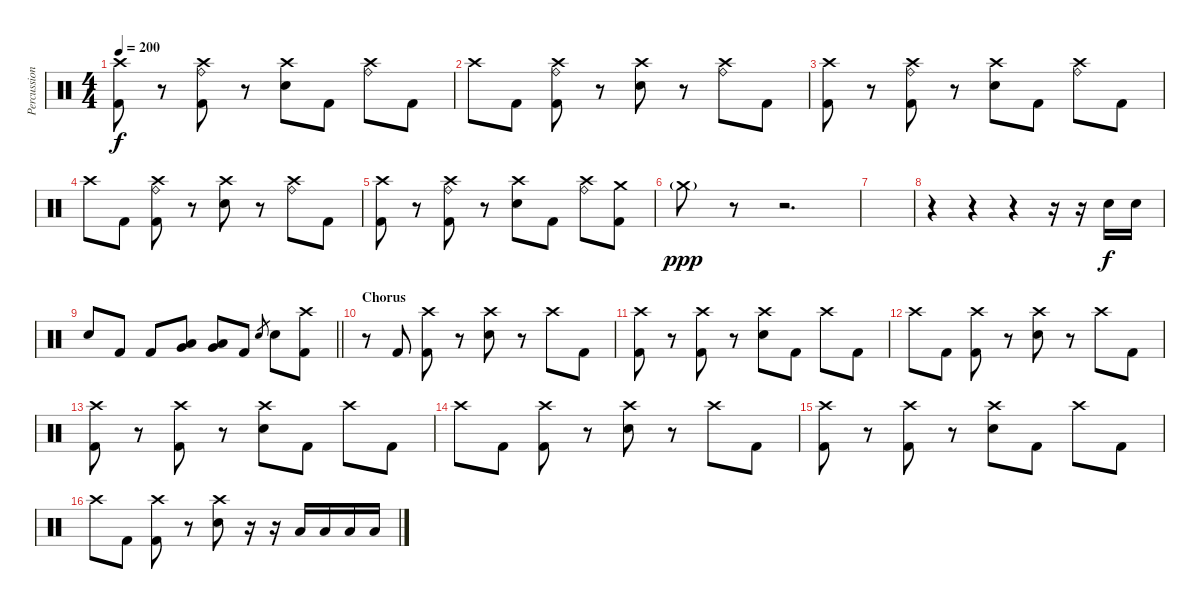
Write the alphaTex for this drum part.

\track ("Percussion" "Percussion") {instrument percussion}
\staff {score}
\articulation defaults
\ts (4 4)
\tempo 200
\clef neutral
\ks c
("Crash high (hit)" "Kick (hit) 2").8{dy f} r.8 ("Crash high (hit)" "Ride (bell)" "Kick (hit) 2").8 r.8 ("Crash high (hit)" "Electric Snare (hit)").8 "Kick (hit) 2".8 ("Crash high (hit)" "Ride (bell)").8 "Kick (hit) 2".8 |
"Crash high (hit)".8 "Kick (hit) 2".8 ("Crash high (hit)" "Ride (bell)" "Kick (hit) 2").8 r.8 ("Crash high (hit)" "Electric Snare (hit)").8 r.8 ("Crash high (hit)" "Ride (bell)").8 "Kick (hit) 2".8 |
("Crash high (hit)" "Kick (hit) 2").8 r.8 ("Crash high (hit)" "Ride (bell)" "Kick (hit) 2").8 r.8 ("Crash high (hit)" "Electric Snare (hit)").8 "Kick (hit) 2".8 ("Crash high (hit)" "Ride (bell)").8 "Kick (hit) 2".8 |
"Crash high (hit)".8 "Kick (hit) 2".8 ("Crash high (hit)" "Ride (bell)" "Kick (hit) 2").8 r.8 ("Crash high (hit)" "Electric Snare (hit)").8 r.8 ("Crash high (hit)" "Ride (bell)").8 "Kick (hit) 2".8 |
("Crash high (hit)" "Kick (hit) 2").8 r.8 ("Crash high (hit)" "Ride (bell)" "Kick (hit) 2").8 r.8 ("Crash high (hit)" "Electric Snare (hit)").8 "Kick (hit) 2".8 ("Crash high (hit)" "Ride (bell)").8 ("Crash medium (hit)" "Kick (hit) 2").8 |
"Crash medium (hit)"{g}.8{dy ppp volume 0} r.8 r.2{d} |
|
r.4 r.4 r.4 r.16{volume 16} r.16 "Electric Snare (hit)".16{dy f} "Electric Snare (hit)".16 |
\barLineRight lightlight "Electric Snare (hit)".8 "Kick (hit) 2".8 "Kick (hit) 2".8
("Low Floor Tom (hit)" "Very Low Tom (hit)").8 ("Low Floor Tom (hit)" "Very Low Tom (hit)").8 "Kick (hit) 2".8 "Electric Snare (hit)".8{gr} "Electric Snare (hit)".8 ("Crash high (hit)" "Kick (hit) 2").8 |
\section ("" "Chorus")
r.8 "Kick (hit) 2".8 ("Crash high (hit)" "Kick (hit) 2").8 r.8 ("Crash high (hit)" "Electric Snare (hit)").8 r.8 "Crash high (hit)".8 "Kick (hit) 2".8 |
("Crash high (hit)" "Kick (hit) 2").8 r.8 ("Crash high (hit)" "Kick (hit) 2").8 r.8 ("Crash high (hit)" "Electric Snare (hit)").8 "Kick (hit) 2".8 "Crash high (hit)".8 "Kick (hit) 2".8 |
"Crash high (hit)".8 "Kick (hit) 2".8 ("Crash high (hit)" "Kick (hit) 2").8 r.8 ("Crash high (hit)" "Electric Snare (hit)").8 r.8 "Crash high (hit)".8 "Kick (hit) 2".8 |
("Crash high (hit)" "Kick (hit) 2").8 r.8 ("Crash high (hit)" "Kick (hit) 2").8 r.8 ("Crash high (hit)" "Electric Snare (hit)").8 "Kick (hit) 2".8 "Crash high (hit)".8 "Kick (hit) 2".8 |
"Crash high (hit)".8 "Kick (hit) 2".8 ("Crash high (hit)" "Kick (hit) 2").8 r.8 ("Crash high (hit)" "Electric Snare (hit)").8 r.8 "Crash high (hit)".8 "Kick (hit) 2".8 |
("Crash high (hit)" "Kick (hit) 2").8 r.8 ("Crash high (hit)" "Kick (hit) 2").8 r.8 ("Crash high (hit)" "Electric Snare (hit)").8 "Kick (hit) 2".8 "Crash high (hit)".8 "Kick (hit) 2".8 |
"Crash high (hit)".8 "Kick (hit) 2".8 ("Crash high (hit)" "Kick (hit) 2").8 r.8 ("Crash high (hit)" "Electric Snare (hit)").8 r.16 r.16 "Low Tom (hit)".16 "Low Tom (hit)".16 "Low Tom (hit)".16 "Low Tom (hit)".16
